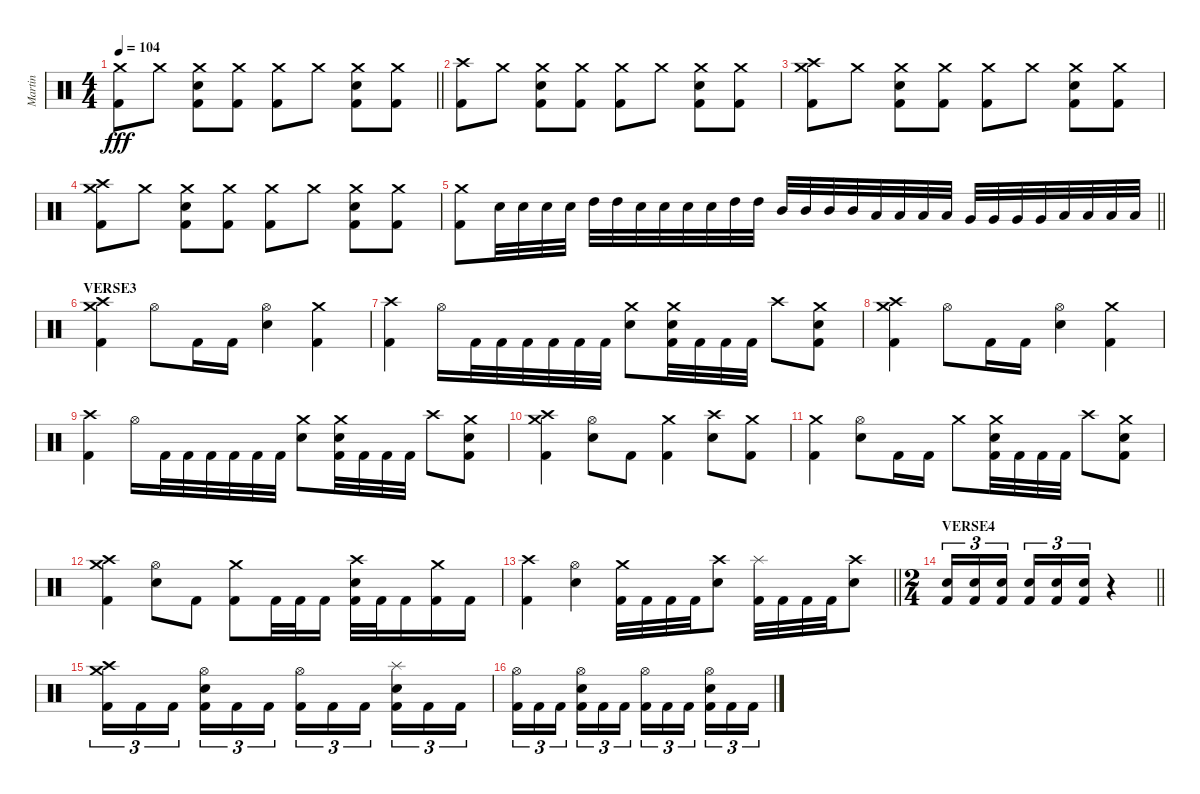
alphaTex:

\track ("Martin" "Martin") {instrument percussion}
\staff {score}
\articulation defaults
\ts (4 4)
\tempo 104
\clef neutral
\barLineRight lightlight
\ks c
("Crash medium (hit)" "Kick (hit) 2").8{dy fff} "Crash medium (hit)".8 ("Crash medium (hit)" "Electric Snare (hit)" "Kick (hit) 2").8 ("Crash medium (hit)" "Kick (hit) 2").8 ("Crash medium (hit)" "Kick (hit) 2").8 "Crash medium (hit)".8 ("Crash medium (hit)" "Electric Snare (hit)" "Kick (hit) 2").8 ("Crash medium (hit)" "Kick (hit) 2").8 |
("Crash high (hit)" "Kick (hit) 2").8 "Crash medium (hit)".8 ("Crash medium (hit)" "Electric Snare (hit)" "Kick (hit) 2").8 ("Crash medium (hit)" "Kick (hit) 2").8 ("Crash medium (hit)" "Kick (hit) 2").8 "Crash medium (hit)".8 ("Crash medium (hit)" "Electric Snare (hit)" "Kick (hit) 2").8 ("Crash medium (hit)" "Kick (hit) 2").8 |
("Crash high (hit)" "Crash medium (hit)" "Kick (hit) 2").8 "Crash medium (hit)".8 ("Crash medium (hit)" "Electric Snare (hit)" "Kick (hit) 2").8 ("Crash medium (hit)" "Kick (hit) 2").8 ("Crash medium (hit)" "Kick (hit) 2").8 "Crash medium (hit)".8 ("Crash medium (hit)" "Electric Snare (hit)" "Kick (hit) 2").8 ("Crash medium (hit)" "Kick (hit) 2").8 |
("Crash high (hit)" "Crash medium (hit)" "Kick (hit) 2").8 "Crash medium (hit)".8 ("Crash medium (hit)" "Electric Snare (hit)" "Kick (hit) 2").8 ("Crash medium (hit)" "Kick (hit) 2").8 ("Crash medium (hit)" "Kick (hit) 2").8 "Crash medium (hit)".8 ("Crash medium (hit)" "Electric Snare (hit)" "Kick (hit) 2").8 ("Crash medium (hit)" "Kick (hit) 2").8 |
\barLineRight lightlight
("Crash medium (hit)" "Kick (hit) 2").8 "Electric Snare (hit)".32 "Electric Snare (hit)".32 "Electric Snare (hit)".32 "Electric Snare (hit)".32 "High Tom (hit)".32 "High Tom (hit)".32 "Electric Snare (hit)".32 "Electric Snare (hit)".32 "Electric Snare (hit)".32 "Electric Snare (hit)".32 "High Tom (hit)".32 "High Tom (hit)".32 "Mid Tom (hit)".32 "Mid Tom (hit)".32 "Mid Tom (hit)".32 "Mid Tom (hit)".32 "Low Tom (hit)".32 "Low Tom (hit)".32 "Low Tom (hit)".32 "Low Tom (hit)".32 "Very Low Tom (hit)".32 "Very Low Tom (hit)".32 "Very Low Tom (hit)".32 "Very Low Tom (hit)".32 "Low Floor Tom (hit)".32 "Low Floor Tom (hit)".32 "Low Floor Tom (hit)".32 "Low Floor Tom (hit)".32 |
\section ("" "VERSE3")
("Crash high (hit)" "Crash medium (hit)" "Kick (hit) 2").4 "Hi-Hat (open)".8 "Kick (hit) 2".16 "Kick (hit) 2".16 ("Hi-Hat (open)" "Electric Snare (hit)").4 ("Crash medium (hit)" "Kick (hit) 2").4 |
("Crash high (hit)" "Kick (hit) 2").4 "Hi-Hat (open)".16 "Kick (hit) 2".32 "Kick (hit) 2".32 "Kick (hit) 2".32 "Kick (hit) 2".32 "Kick (hit) 2".32 "Kick (hit) 2".32 ("Crash medium (hit)" "Electric Snare (hit)").8 ("Crash medium (hit)" "Electric Snare (hit)" "Kick (hit) 2").32 "Kick (hit) 2".32 "Kick (hit) 2".32 "Kick (hit) 2".32 "Crash high (hit)".8 ("Crash medium (hit)" "Electric Snare (hit)" "Kick (hit) 2").8 |
("Crash high (hit)" "Crash medium (hit)" "Kick (hit) 2").4 "Hi-Hat (open)".8 "Kick (hit) 2".16 "Kick (hit) 2".16 ("Hi-Hat (open)" "Electric Snare (hit)").4 ("Crash medium (hit)" "Kick (hit) 2").4 |
("Crash high (hit)" "Kick (hit) 2").4 "Hi-Hat (open)".16 "Kick (hit) 2".32 "Kick (hit) 2".32 "Kick (hit) 2".32 "Kick (hit) 2".32 "Kick (hit) 2".32 "Kick (hit) 2".32 ("Crash medium (hit)" "Electric Snare (hit)").8 ("Crash medium (hit)" "Electric Snare (hit)" "Kick (hit) 2").32 "Kick (hit) 2".32 "Kick (hit) 2".32 "Kick (hit) 2".32 "Crash high (hit)".8 ("Crash medium (hit)" "Electric Snare (hit)" "Kick (hit) 2").8 |
("Crash high (hit)" "Crash medium (hit)" "Kick (hit) 2").4 ("Hi-Hat (open)" "Electric Snare (hit)").8 "Kick (hit) 2".8 ("Crash medium (hit)" "Kick (hit) 2").4 ("Crash high (hit)" "Electric Snare (hit)").8 ("Crash medium (hit)" "Kick (hit) 2").8 |
("Crash medium (hit)" "Kick (hit) 2").4 ("Hi-Hat (open)" "Electric Snare (hit)").8 "Kick (hit) 2".16 "Kick (hit) 2".16 "Crash medium (hit)".8 ("Crash medium (hit)" "Electric Snare (hit)" "Kick (hit) 2").32 "Kick (hit) 2".32 "Kick (hit) 2".32 "Kick (hit) 2".32 "Crash high (hit)".8 ("Crash medium (hit)" "Electric Snare (hit)" "Kick (hit) 2").8 |
("Crash high (hit)" "Crash medium (hit)" "Kick (hit) 2").4 ("Hi-Hat (open)" "Electric Snare (hit)").8 "Kick (hit) 2".8 ("Crash medium (hit)" "Kick (hit) 2").8 "Kick (hit) 2".32 "Kick (hit) 2".32 "Kick (hit) 2".16 ("Crash high (hit)" "Electric Snare (hit)" "Kick (hit) 2").32 "Kick (hit) 2".32 "Kick (hit) 2".16 ("Crash medium (hit)" "Kick (hit) 2").16 "Kick (hit) 2".16 |
\barLineRight lightlight
("Crash high (hit)" "Kick (hit) 2").4 ("Hi-Hat (open)" "Electric Snare (hit)").4 ("Crash medium (hit)" "Kick (hit) 2").32 "Kick (hit) 2".32 "Kick (hit) 2".32 "Kick (hit) 2".32 ("Crash high (hit)" "Electric Snare (hit)").8 ("Splash (hit)" "Kick (hit) 2").32 "Kick (hit) 2".32 "Kick (hit) 2".32 "Kick (hit) 2".32 ("Crash high (hit)" "Electric Snare (hit)").8 |
\ts (2 4)
\section ("" "VERSE4")
\barLineRight lightlight
("Electric Snare (hit)" "Kick (hit) 2").16{tu (3 2)} ("Electric Snare (hit)" "Kick (hit) 2").16{tu (3 2)} ("Electric Snare (hit)" "Kick (hit) 2").16{tu (3 2) beam splitsecondary} ("Electric Snare (hit)" "Kick (hit) 2").16{tu (3 2)} ("Electric Snare (hit)" "Kick (hit) 2").16{tu (3 2)} ("Electric Snare (hit)" "Kick (hit) 2").16{tu (3 2)} r.4 |
("Crash high (hit)" "Crash medium (hit)" "Kick (hit) 2").16{tu (3 2)} "Kick (hit) 2".16{tu (3 2)} "Kick (hit) 2".16{tu (3 2) beam splitsecondary} ("Hi-Hat (open)" "Electric Snare (hit)" "Kick (hit) 2").16{tu (3 2)} "Kick (hit) 2".16{tu (3 2)} "Kick (hit) 2".16{tu (3 2)} ("Hi-Hat (open)" "Kick (hit) 2").16{tu (3 2)} "Kick (hit) 2".16{tu (3 2)} "Kick (hit) 2".16{tu (3 2) beam splitsecondary} ("Splash (hit)" "Electric Snare (hit)" "Kick (hit) 2").16{tu (3 2)} "Kick (hit) 2".16{tu (3 2)} "Kick (hit) 2".16{tu (3 2)} |
("Hi-Hat (open)" "Kick (hit) 2").16{tu (3 2)} "Kick (hit) 2".16{tu (3 2)} "Kick (hit) 2".16{tu (3 2) beam splitsecondary} ("Hi-Hat (open)" "Electric Snare (hit)" "Kick (hit) 2").16{tu (3 2)} "Kick (hit) 2".16{tu (3 2)} "Kick (hit) 2".16{tu (3 2)} ("Hi-Hat (open)" "Kick (hit) 2").16{tu (3 2)} "Kick (hit) 2".16{tu (3 2)} "Kick (hit) 2".16{tu (3 2) beam splitsecondary} ("Hi-Hat (open)" "Electric Snare (hit)" "Kick (hit) 2").16{tu (3 2)} "Kick (hit) 2".16{tu (3 2)} "Kick (hit) 2".16{tu (3 2)}
